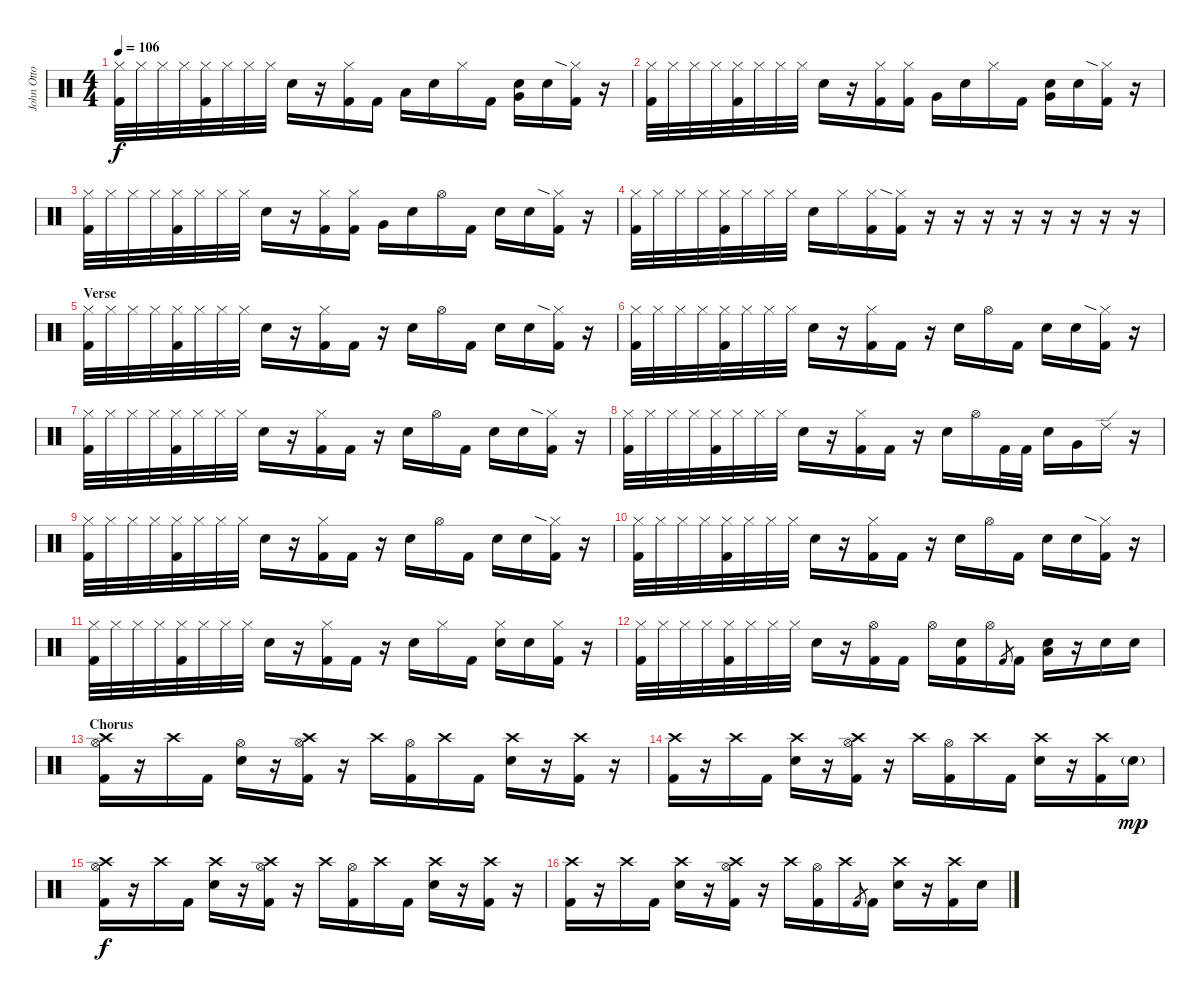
\track ("John Otto - Drums" "John Otto ") {instrument percussion}
\staff {score}
\articulation defaults
\ts (4 4)
\tempo 106
\clef neutral
\ks c
("Hi-Hat (closed)" "Kick (hit) 2").32{dy f} "Hi-Hat (closed)".32 "Hi-Hat (closed)".32 "Hi-Hat (closed)".32 ("Hi-Hat (closed)" "Kick (hit) 2").32 "Hi-Hat (closed)".32 "Hi-Hat (closed)".32 "Hi-Hat (closed)".32 "Snare (hit) 2".16 r.16 ("Hi-Hat (closed)" "Kick (hit) 2").16 "Kick (hit) 2".16 "Low Floor Tom (hit)".16 "Snare (hit) 2".16 "Hi-Hat (closed)".16 "Kick (hit) 2".16 ("Very Low Tom (hit)" "Snare (hit) 2").16 "Snare (hit) 2".16 ("Hi-Hat (closed)"{sia} "Kick (hit) 2").16 r.16 |
("Hi-Hat (closed)" "Kick (hit) 2").32 "Hi-Hat (closed)".32 "Hi-Hat (closed)".32 "Hi-Hat (closed)".32 ("Hi-Hat (closed)" "Kick (hit) 2").32 "Hi-Hat (closed)".32 "Hi-Hat (closed)".32 "Hi-Hat (closed)".32 "Snare (hit) 2".16 r.16 ("Hi-Hat (closed)" "Kick (hit) 2").16 ("Hi-Hat (closed)" "Kick (hit) 2").16 "Very Low Tom (hit)".16 "Snare (hit) 2".16 "Hi-Hat (closed)".16 "Kick (hit) 2".16 ("Very Low Tom (hit)" "Snare (hit) 2").16 "Snare (hit) 2".16 ("Hi-Hat (closed)"{sia} "Kick (hit) 2").16 r.16 |
("Hi-Hat (closed)" "Kick (hit) 2").32 "Hi-Hat (closed)".32 "Hi-Hat (closed)".32 "Hi-Hat (closed)".32 ("Hi-Hat (closed)" "Kick (hit) 2").32 "Hi-Hat (closed)".32 "Hi-Hat (closed)".32 "Hi-Hat (closed)".32 "Snare (hit) 2".16 r.16 ("Hi-Hat (closed)" "Kick (hit) 2").16 ("Hi-Hat (closed)" "Kick (hit) 2").16 "Very Low Tom (hit)".16 "Snare (hit) 2".16 "Hi-Hat (open)".16 "Kick (hit) 2".16 "Snare (hit) 2".16 "Snare (hit) 2".16 ("Hi-Hat (closed)"{sia} "Kick (hit) 2").16 r.16 |
("Hi-Hat (closed)" "Kick (hit) 2").32 "Hi-Hat (closed)".32 "Hi-Hat (closed)".32 "Hi-Hat (closed)".32 ("Hi-Hat (closed)" "Kick (hit) 2").32 "Hi-Hat (closed)".32 "Hi-Hat (closed)".32 "Hi-Hat (closed)".32 "Snare (hit) 2".16 "Hi-Hat (closed)".16 ("Hi-Hat (closed)" "Kick (hit) 2").16 ("Hi-Hat (closed)"{sia} "Kick (hit) 2").16 r.16 r.16 r.16 r.16 r.16 r.16 r.16 r.16 |
\section ("" "Verse")
("Hi-Hat (closed)" "Kick (hit) 2").32 "Hi-Hat (closed)".32 "Hi-Hat (closed)".32 "Hi-Hat (closed)".32 ("Hi-Hat (closed)" "Kick (hit) 2").32 "Hi-Hat (closed)".32 "Hi-Hat (closed)".32 "Hi-Hat (closed)".32 "Snare (hit) 2".16 r.16 ("Hi-Hat (closed)" "Kick (hit) 2").16 "Kick (hit) 2".16 r.16 "Snare (hit) 2".16 "Hi-Hat (open)".16 "Kick (hit) 2".16 "Snare (hit) 2".16 "Snare (hit) 2".16 ("Hi-Hat (closed)"{sia} "Kick (hit) 2").16 r.16 |
("Hi-Hat (closed)" "Kick (hit) 2").32 "Hi-Hat (closed)".32 "Hi-Hat (closed)".32 "Hi-Hat (closed)".32 ("Hi-Hat (closed)" "Kick (hit) 2").32 "Hi-Hat (closed)".32 "Hi-Hat (closed)".32 "Hi-Hat (closed)".32 "Snare (hit) 2".16 r.16 ("Hi-Hat (closed)" "Kick (hit) 2").16 "Kick (hit) 2".16 r.16 "Snare (hit) 2".16 "Hi-Hat (open)".16 "Kick (hit) 2".16 "Snare (hit) 2".16 "Snare (hit) 2".16 ("Hi-Hat (closed)"{sia} "Kick (hit) 2").16 r.16 |
("Hi-Hat (closed)" "Kick (hit) 2").32 "Hi-Hat (closed)".32 "Hi-Hat (closed)".32 "Hi-Hat (closed)".32 ("Hi-Hat (closed)" "Kick (hit) 2").32 "Hi-Hat (closed)".32 "Hi-Hat (closed)".32 "Hi-Hat (closed)".32 "Snare (hit) 2".16 r.16 ("Hi-Hat (closed)" "Kick (hit) 2").16 "Kick (hit) 2".16 r.16 "Snare (hit) 2".16 "Hi-Hat (open)".16 "Kick (hit) 2".16 "Snare (hit) 2".16 "Snare (hit) 2".16 ("Hi-Hat (closed)"{sia} "Kick (hit) 2").16 r.16 |
("Hi-Hat (closed)" "Kick (hit) 2").32 "Hi-Hat (closed)".32 "Hi-Hat (closed)".32 "Hi-Hat (closed)".32 ("Hi-Hat (closed)" "Kick (hit) 2").32 "Hi-Hat (closed)".32 "Hi-Hat (closed)".32 "Hi-Hat (closed)".32 "Snare (hit) 2".16 r.16 ("Hi-Hat (closed)" "Kick (hit) 2").16 "Kick (hit) 2".16 r.16 "Snare (hit) 2".16 "Hi-Hat (open)".16 "Kick (hit) 2".32 "Kick (hit) 2".32 "Snare (hit) 2".16 "Very Low Tom (hit)".16 "Ride (edge) 2".16 r.16 |
("Hi-Hat (closed)" "Kick (hit) 2").32 "Hi-Hat (closed)".32 "Hi-Hat (closed)".32 "Hi-Hat (closed)".32 ("Hi-Hat (closed)" "Kick (hit) 2").32 "Hi-Hat (closed)".32 "Hi-Hat (closed)".32 "Hi-Hat (closed)".32 "Snare (hit) 2".16 r.16 ("Hi-Hat (closed)" "Kick (hit) 2").16 "Kick (hit) 2".16 r.16 "Snare (hit) 2".16 "Hi-Hat (open)".16 "Kick (hit) 2".16 "Snare (hit) 2".16 "Snare (hit) 2".16 ("Hi-Hat (closed)"{sia} "Kick (hit) 2").16 r.16 |
("Hi-Hat (closed)" "Kick (hit) 2").32 "Hi-Hat (closed)".32 "Hi-Hat (closed)".32 "Hi-Hat (closed)".32 ("Hi-Hat (closed)" "Kick (hit) 2").32 "Hi-Hat (closed)".32 "Hi-Hat (closed)".32 "Hi-Hat (closed)".32 "Snare (hit) 2".16 r.16 ("Hi-Hat (closed)" "Kick (hit) 2").16 "Kick (hit) 2".16 r.16 "Snare (hit) 2".16 "Hi-Hat (open)".16 "Kick (hit) 2".16 "Snare (hit) 2".16 "Snare (hit) 2".16 ("Hi-Hat (closed)"{sia} "Kick (hit) 2").16 r.16 |
("Hi-Hat (closed)" "Kick (hit) 2").32 "Hi-Hat (closed)".32 "Hi-Hat (closed)".32 "Hi-Hat (closed)".32 ("Hi-Hat (closed)" "Kick (hit) 2").32 "Hi-Hat (closed)".32 "Hi-Hat (closed)".32 "Hi-Hat (closed)".32 "Snare (hit) 2".16 r.16 ("Hi-Hat (closed)" "Kick (hit) 2").16 "Kick (hit) 2".16 r.16 "Snare (hit) 2".16 "Hi-Hat (closed)".16 "Kick (hit) 2".16 ("Hi-Hat (closed)" "Snare (hit) 2").16 "Snare (hit) 2".16 ("Hi-Hat (closed)" "Kick (hit) 2").16 r.16 |
("Hi-Hat (closed)" "Kick (hit) 2").32 "Hi-Hat (closed)".32 "Hi-Hat (closed)".32 "Hi-Hat (closed)".32 ("Hi-Hat (closed)" "Kick (hit) 2").32 "Hi-Hat (closed)".32 "Hi-Hat (closed)".32 "Hi-Hat (closed)".32 "Snare (hit) 2".16 r.16 ("Hi-Hat (open)" "Kick (hit) 2").16 "Kick (hit) 2".16 "Hi-Hat (open)".16 ("Snare (hit) 2" "Kick (hit) 2").16 "Hi-Hat (open)".16 "Kick (hit) 2".8{gr} "Kick (hit) 2".16 ("Snare (hit) 2" "Low Floor Tom (hit)").16 r.16 "Snare (hit) 2".16 "Snare (hit) 2".16 |
\section ("" "Chorus")
("Crash high (hit)" "Hi-Hat (open)" "Kick (hit) 2").16 r.16 "Crash high (hit)".16 "Kick (hit) 2".16 ("Hi-Hat (open)" "Snare (hit) 2").16 r.16 ("Crash high (hit)" "Hi-Hat (open)" "Kick (hit) 2").16 r.16 "Crash high (hit)".16 ("Hi-Hat (open)" "Kick (hit) 2").16 "Crash high (hit)".16 "Kick (hit) 2".16 ("Crash high (hit)" "Snare (hit) 2").16 r.16 ("Crash high (hit)" "Kick (hit) 2").16 r.16 |
("Crash high (hit)" "Kick (hit) 2").16 r.16 "Crash high (hit)".16 "Kick (hit) 2".16 ("Crash high (hit)" "Snare (hit) 2").16 r.16 ("Crash high (hit)" "Hi-Hat (open)" "Kick (hit) 2").16 r.16 "Crash high (hit)".16 ("Hi-Hat (open)" "Kick (hit) 2").16 "Crash high (hit)".16 "Kick (hit) 2".16 ("Crash high (hit)" "Snare (hit) 2").16 r.16 ("Crash high (hit)" "Kick (hit) 2").16 "Snare (hit) 2"{g}.16{dy mp} |
("Crash high (hit)" "Hi-Hat (open)" "Kick (hit) 2").16{dy f} r.16 "Crash high (hit)".16 "Kick (hit) 2".16 ("Crash high (hit)" "Snare (hit) 2").16 r.16 ("Crash high (hit)" "Hi-Hat (open)" "Kick (hit) 2").16 r.16 "Crash high (hit)".16 ("Hi-Hat (open)" "Kick (hit) 2").16 "Crash high (hit)".16 "Kick (hit) 2".16 ("Crash high (hit)" "Snare (hit) 2").16 r.16 ("Crash high (hit)" "Kick (hit) 2").16 r.16 |
("Crash high (hit)" "Kick (hit) 2").16 r.16 "Crash high (hit)".16 "Kick (hit) 2".16 ("Crash high (hit)" "Snare (hit) 2").16 r.16 ("Crash high (hit)" "Hi-Hat (open)" "Kick (hit) 2").16 r.16 "Crash high (hit)".16 ("Hi-Hat (open)" "Kick (hit) 2").16 "Crash high (hit)".16 "Kick (hit) 2".8{gr} "Kick (hit) 2".16 ("Crash high (hit)" "Snare (hit) 2").16 r.16 ("Crash high (hit)" "Kick (hit) 2").16 "Snare (hit) 2".16
